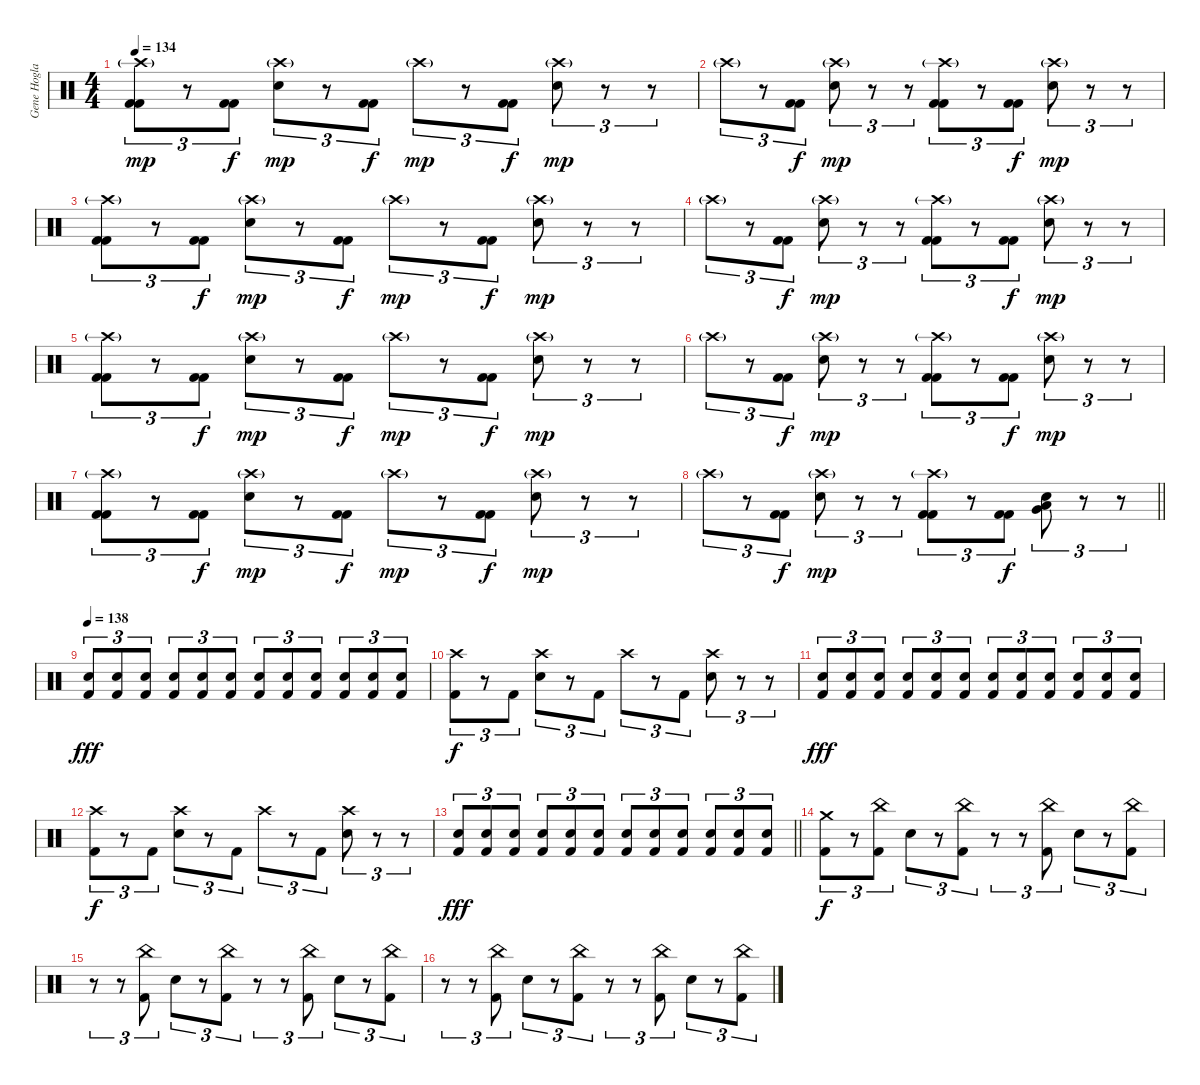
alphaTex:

\track ("Gene Hoglan" "Gene Hogla") {instrument percussion}
\staff {score}
\articulation defaults
\ts (4 4)
\tempo 134
\clef neutral
\ks c
("Crash high (hit)"{g} "Kick (hit) 2" "Kick (hit) 2").8{tu (3 2) dy mp} r.8{tu (3 2)} ("Kick (hit) 2" "Kick (hit) 2").8{tu (3 2) dy f} ("Crash high (hit)"{g} "Electric Snare (hit)").8{tu (3 2) dy mp} r.8{tu (3 2)} ("Kick (hit) 2" "Kick (hit) 2").8{tu (3 2) dy f} "Crash high (hit)"{g}.8{tu (3 2) dy mp} r.8{tu (3 2)} ("Kick (hit) 2" "Kick (hit) 2").8{tu (3 2) dy f} ("Crash high (hit)"{g} "Electric Snare (hit)").8{tu (3 2) dy mp} r.8{tu (3 2)} r.8{tu (3 2)} |
"Crash high (hit)"{g}.8{tu (3 2)} r.8{tu (3 2)} ("Kick (hit) 2" "Kick (hit) 2").8{tu (3 2) dy f} ("Crash high (hit)"{g} "Electric Snare (hit)").8{tu (3 2) dy mp} r.8{tu (3 2)} r.8{tu (3 2)} ("Crash high (hit)"{g} "Kick (hit) 2" "Kick (hit) 2").8{tu (3 2)} r.8{tu (3 2)} ("Kick (hit) 2" "Kick (hit) 2").8{tu (3 2) dy f} ("Crash high (hit)"{g} "Electric Snare (hit)").8{tu (3 2) dy mp} r.8{tu (3 2)} r.8{tu (3 2)} |
("Crash high (hit)"{g} "Kick (hit) 2" "Kick (hit) 2").8{tu (3 2)} r.8{tu (3 2)} ("Kick (hit) 2" "Kick (hit) 2").8{tu (3 2) dy f} ("Crash high (hit)"{g} "Electric Snare (hit)").8{tu (3 2) dy mp} r.8{tu (3 2)} ("Kick (hit) 2" "Kick (hit) 2").8{tu (3 2) dy f} "Crash high (hit)"{g}.8{tu (3 2) dy mp} r.8{tu (3 2)} ("Kick (hit) 2" "Kick (hit) 2").8{tu (3 2) dy f} ("Crash high (hit)"{g} "Electric Snare (hit)").8{tu (3 2) dy mp} r.8{tu (3 2)} r.8{tu (3 2)} |
"Crash high (hit)"{g}.8{tu (3 2)} r.8{tu (3 2)} ("Kick (hit) 2" "Kick (hit) 2").8{tu (3 2) dy f} ("Crash high (hit)"{g} "Electric Snare (hit)").8{tu (3 2) dy mp} r.8{tu (3 2)} r.8{tu (3 2)} ("Crash high (hit)"{g} "Kick (hit) 2" "Kick (hit) 2").8{tu (3 2)} r.8{tu (3 2)} ("Kick (hit) 2" "Kick (hit) 2").8{tu (3 2) dy f} ("Crash high (hit)"{g} "Electric Snare (hit)").8{tu (3 2) dy mp} r.8{tu (3 2)} r.8{tu (3 2)} |
("Crash high (hit)"{g} "Kick (hit) 2" "Kick (hit) 2").8{tu (3 2)} r.8{tu (3 2)} ("Kick (hit) 2" "Kick (hit) 2").8{tu (3 2) dy f} ("Crash high (hit)"{g} "Electric Snare (hit)").8{tu (3 2) dy mp} r.8{tu (3 2)} ("Kick (hit) 2" "Kick (hit) 2").8{tu (3 2) dy f} "Crash high (hit)"{g}.8{tu (3 2) dy mp} r.8{tu (3 2)} ("Kick (hit) 2" "Kick (hit) 2").8{tu (3 2) dy f} ("Crash high (hit)"{g} "Electric Snare (hit)").8{tu (3 2) dy mp} r.8{tu (3 2)} r.8{tu (3 2)} |
"Crash high (hit)"{g}.8{tu (3 2)} r.8{tu (3 2)} ("Kick (hit) 2" "Kick (hit) 2").8{tu (3 2) dy f} ("Crash high (hit)"{g} "Electric Snare (hit)").8{tu (3 2) dy mp} r.8{tu (3 2)} r.8{tu (3 2)} ("Crash high (hit)"{g} "Kick (hit) 2" "Kick (hit) 2").8{tu (3 2)} r.8{tu (3 2)} ("Kick (hit) 2" "Kick (hit) 2").8{tu (3 2) dy f} ("Crash high (hit)"{g} "Electric Snare (hit)").8{tu (3 2) dy mp} r.8{tu (3 2)} r.8{tu (3 2)} |
("Crash high (hit)"{g} "Kick (hit) 2" "Kick (hit) 2").8{tu (3 2)} r.8{tu (3 2)} ("Kick (hit) 2" "Kick (hit) 2").8{tu (3 2) dy f} ("Crash high (hit)"{g} "Electric Snare (hit)").8{tu (3 2) dy mp} r.8{tu (3 2)} ("Kick (hit) 2" "Kick (hit) 2").8{tu (3 2) dy f} "Crash high (hit)"{g}.8{tu (3 2) dy mp} r.8{tu (3 2)} ("Kick (hit) 2" "Kick (hit) 2").8{tu (3 2) dy f} ("Crash high (hit)"{g} "Electric Snare (hit)").8{tu (3 2) dy mp} r.8{tu (3 2)} r.8{tu (3 2)} |
\barLineRight lightlight "Crash high (hit)"{g}.8{tu (3 2)}
r.8{tu (3 2)} ("Kick (hit) 2" "Kick (hit) 2").8{tu (3 2) dy f} ("Crash high (hit)"{g} "Electric Snare (hit)").8{tu (3 2) dy mp} r.8{tu (3 2)} r.8{tu (3 2)} ("Crash high (hit)"{g} "Kick (hit) 2" "Kick (hit) 2").8{tu (3 2)} r.8{tu (3 2)} ("Kick (hit) 2" "Kick (hit) 2").8{tu (3 2) dy f} ("Electric Snare (hit)" "Very Low Tom (hit)" "Low Floor Tom (hit)").8{tu (3 2)} r.8{tu (3 2)} r.8{tu (3 2)} |
\tempo 138
("Electric Snare (hit)" "Kick (hit) 2").8{tu (3 2) dy fff} ("Electric Snare (hit)" "Kick (hit) 2").8{tu (3 2)} ("Electric Snare (hit)" "Kick (hit) 2").8{tu (3 2)} ("Electric Snare (hit)" "Kick (hit) 2").8{tu (3 2)} ("Electric Snare (hit)" "Kick (hit) 2").8{tu (3 2)} ("Electric Snare (hit)" "Kick (hit) 2").8{tu (3 2)} ("Electric Snare (hit)" "Kick (hit) 2").8{tu (3 2)} ("Electric Snare (hit)" "Kick (hit) 2").8{tu (3 2)} ("Electric Snare (hit)" "Kick (hit) 2").8{tu (3 2)} ("Electric Snare (hit)" "Kick (hit) 2").8{tu (3 2)} ("Electric Snare (hit)" "Kick (hit) 2").8{tu (3 2)} ("Electric Snare (hit)" "Kick (hit) 2").8{tu (3 2)} |
("Crash high (hit)" "Kick (hit) 2").8{tu (3 2) dy f} r.8{tu (3 2)} "Kick (hit) 2".8{tu (3 2)} ("Crash high (hit)" "Electric Snare (hit)").8{tu (3 2)} r.8{tu (3 2)} "Kick (hit) 2".8{tu (3 2)} "Crash high (hit)".8{tu (3 2)} r.8{tu (3 2)} "Kick (hit) 2".8{tu (3 2)} ("Crash high (hit)" "Electric Snare (hit)").8{tu (3 2)} r.8{tu (3 2)} r.8{tu (3 2)} |
("Electric Snare (hit)" "Kick (hit) 2").8{tu (3 2) dy fff} ("Electric Snare (hit)" "Kick (hit) 2").8{tu (3 2)} ("Electric Snare (hit)" "Kick (hit) 2").8{tu (3 2)} ("Electric Snare (hit)" "Kick (hit) 2").8{tu (3 2)} ("Electric Snare (hit)" "Kick (hit) 2").8{tu (3 2)} ("Electric Snare (hit)" "Kick (hit) 2").8{tu (3 2)} ("Electric Snare (hit)" "Kick (hit) 2").8{tu (3 2)} ("Electric Snare (hit)" "Kick (hit) 2").8{tu (3 2)} ("Electric Snare (hit)" "Kick (hit) 2").8{tu (3 2)} ("Electric Snare (hit)" "Kick (hit) 2").8{tu (3 2)} ("Electric Snare (hit)" "Kick (hit) 2").8{tu (3 2)} ("Electric Snare (hit)" "Kick (hit) 2").8{tu (3 2)} |
("Crash high (hit)" "Kick (hit) 2").8{tu (3 2) dy f} r.8{tu (3 2)} "Kick (hit) 2".8{tu (3 2)} ("Crash high (hit)" "Electric Snare (hit)").8{tu (3 2)} r.8{tu (3 2)} "Kick (hit) 2".8{tu (3 2)} "Crash high (hit)".8{tu (3 2)} r.8{tu (3 2)} "Kick (hit) 2".8{tu (3 2)} ("Crash high (hit)" "Electric Snare (hit)").8{tu (3 2)} r.8{tu (3 2)} r.8{tu (3 2)} |
\barLineRight lightlight
("Electric Snare (hit)" "Kick (hit) 2").8{tu (3 2) dy fff} ("Electric Snare (hit)" "Kick (hit) 2").8{tu (3 2)} ("Electric Snare (hit)" "Kick (hit) 2").8{tu (3 2)} ("Electric Snare (hit)" "Kick (hit) 2").8{tu (3 2)} ("Electric Snare (hit)" "Kick (hit) 2").8{tu (3 2)} ("Electric Snare (hit)" "Kick (hit) 2").8{tu (3 2)} ("Electric Snare (hit)" "Kick (hit) 2").8{tu (3 2)} ("Electric Snare (hit)" "Kick (hit) 2").8{tu (3 2)} ("Electric Snare (hit)" "Kick (hit) 2").8{tu (3 2)} ("Electric Snare (hit)" "Kick (hit) 2").8{tu (3 2)} ("Electric Snare (hit)" "Kick (hit) 2").8{tu (3 2)} ("Electric Snare (hit)" "Kick (hit) 2").8{tu (3 2)} |
("Crash medium (hit)" "Kick (hit) 2").8{tu (3 2) dy f} r.8{tu (3 2)} ("China (hit)" "Kick (hit) 2").8{tu (3 2)} "Electric Snare (hit)".8{tu (3 2)} r.8{tu (3 2)} ("China (hit)" "Kick (hit) 2").8{tu (3 2)} r.8{tu (3 2)} r.8{tu (3 2)} ("China (hit)" "Kick (hit) 2").8{tu (3 2)} "Electric Snare (hit)".8{tu (3 2)} r.8{tu (3 2)} ("China (hit)" "Kick (hit) 2").8{tu (3 2)} |
r.8{tu (3 2)} r.8{tu (3 2)} ("China (hit)" "Kick (hit) 2").8{tu (3 2)} "Electric Snare (hit)".8{tu (3 2)} r.8{tu (3 2)} ("China (hit)" "Kick (hit) 2").8{tu (3 2)} r.8{tu (3 2)} r.8{tu (3 2)} ("China (hit)" "Kick (hit) 2").8{tu (3 2)} "Electric Snare (hit)".8{tu (3 2)} r.8{tu (3 2)} ("China (hit)" "Kick (hit) 2").8{tu (3 2)} |
r.8{tu (3 2)} r.8{tu (3 2)} ("China (hit)" "Kick (hit) 2").8{tu (3 2)} "Electric Snare (hit)".8{tu (3 2)} r.8{tu (3 2)} ("China (hit)" "Kick (hit) 2").8{tu (3 2)} r.8{tu (3 2)} r.8{tu (3 2)} ("China (hit)" "Kick (hit) 2").8{tu (3 2)} "Electric Snare (hit)".8{tu (3 2)} r.8{tu (3 2)} ("China (hit)" "Kick (hit) 2").8{tu (3 2)}
